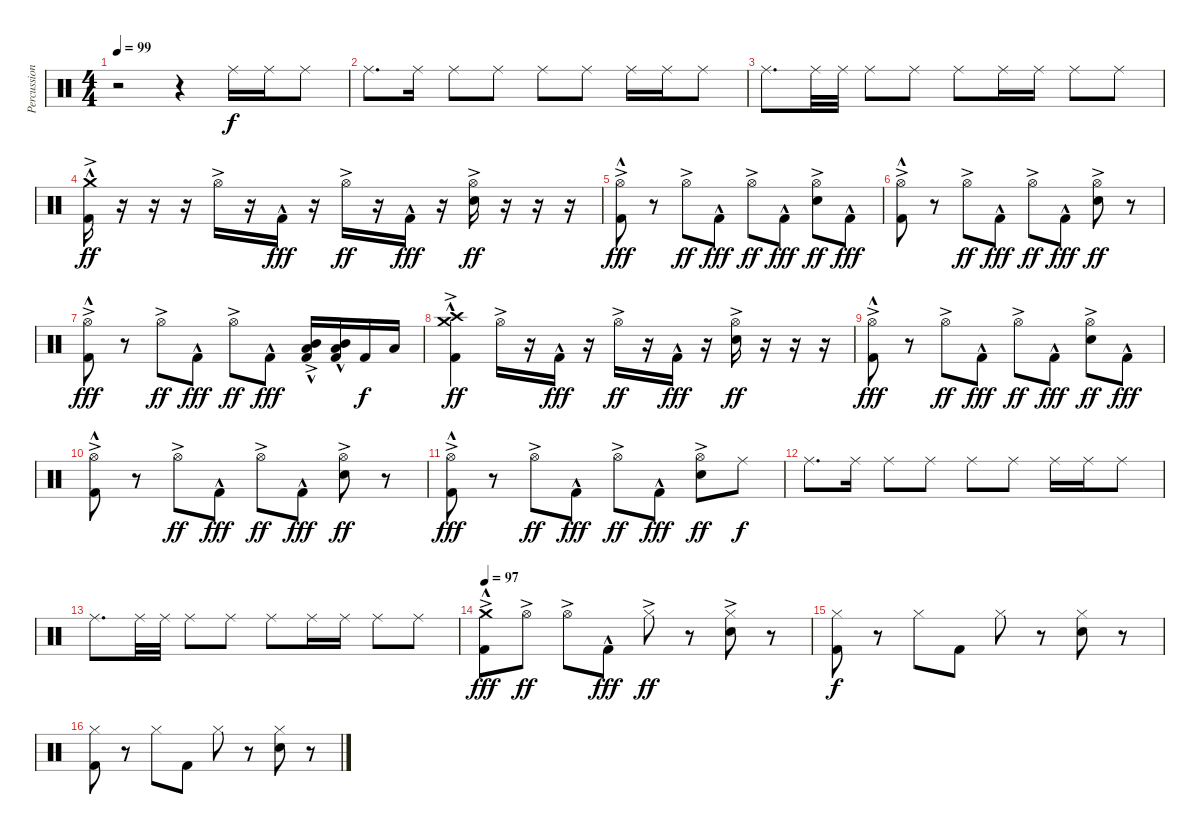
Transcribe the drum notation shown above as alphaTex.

\track ("Percussion" "Percussion") {instrument percussion}
\staff {score}
\articulation defaults
\ts (4 4)
\tempo 99
\clef neutral
\ks c
r.2{dy f} r.4 "Ride (middle)".16 "Ride (middle)".16 "Ride (middle)".8 |
"Ride (middle)".8{d} "Ride (middle)".16 "Ride (middle)".8 "Ride (middle)".8 "Ride (middle)".8 "Ride (middle)".8 "Ride (middle)".16 "Ride (middle)".16 "Ride (middle)".8 |
"Ride (middle)".8{d} "Ride (middle)".32 "Ride (middle)".32 "Ride (middle)".8 "Ride (middle)".8 "Ride (middle)".8 "Ride (middle)".16 "Ride (middle)".16 "Ride (middle)".8 "Ride (middle)".8 |
("Crash medium (hit)"{hac} "Kick (hit) 2"{ac}).16{dy ff} r.16 r.16 r.16 "Hi-Hat (open)"{ac}.16 r.16 "Kick (hit) 2"{hac}.16{dy fff} r.16 "Hi-Hat (open)"{ac}.16{dy ff} r.16 "Kick (hit) 2"{hac}.16{dy fff} r.16 ("Hi-Hat (open)"{ac} "Snare (hit) 2"{ac}).16{dy ff} r.16 r.16 r.16 |
("Hi-Hat (open)"{ac} "Kick (hit) 2"{hac}).8{dy fff} r.8 "Hi-Hat (open)"{ac}.8{dy ff} "Kick (hit) 2"{hac}.8{dy fff} "Hi-Hat (open)"{ac}.8{dy ff} "Kick (hit) 2"{hac}.8{dy fff} ("Hi-Hat (open)"{ac} "Snare (hit) 2"{ac}).8{dy ff} "Kick (hit) 2"{hac}.8{dy fff} |
("Hi-Hat (open)"{ac} "Kick (hit) 2"{hac}).8 r.8 "Hi-Hat (open)"{ac}.8{dy ff} "Kick (hit) 2"{hac}.8{dy fff} "Hi-Hat (open)"{ac}.8{dy ff} "Kick (hit) 2"{hac}.8{dy fff} ("Hi-Hat (open)"{ac} "Snare (hit) 2"{ac}).8{dy ff} r.8 |
("Hi-Hat (open)"{ac} "Kick (hit) 2"{hac}).8{dy fff} r.8 "Hi-Hat (open)"{ac}.8{dy ff} "Kick (hit) 2"{hac}.8{dy fff} "Hi-Hat (open)"{ac}.8{dy ff} "Kick (hit) 2"{hac}.8{dy fff} ("Low Tom (hit)"{ac} "Mid Tom (hit)"{hac} "Kick (hit) 2").16 ("Low Tom (hit)"{hac} "Mid Tom (hit)"{hac} "Kick (hit) 2").16 "Kick (hit) 2".16{dy f} "Low Tom (hit)".16 |
("Crash medium (hit)"{hac} "Crash high (hit)"{hac} "Kick (hit) 2"{ac}).4{dy ff} "Hi-Hat (open)"{ac}.16 r.16 "Kick (hit) 2"{hac}.16{dy fff} r.16 "Hi-Hat (open)"{ac}.16{dy ff} r.16 "Kick (hit) 2"{hac}.16{dy fff} r.16 ("Hi-Hat (open)"{ac} "Snare (hit) 2"{ac}).16{dy ff} r.16 r.16 r.16 |
("Hi-Hat (open)"{ac} "Kick (hit) 2"{hac}).8{dy fff} r.8 "Hi-Hat (open)"{ac}.8{dy ff} "Kick (hit) 2"{hac}.8{dy fff} "Hi-Hat (open)"{ac}.8{dy ff} "Kick (hit) 2"{hac}.8{dy fff} ("Hi-Hat (open)"{ac} "Snare (hit) 2"{ac}).8{dy ff} "Kick (hit) 2"{hac}.8{dy fff} |
("Hi-Hat (open)"{ac} "Kick (hit) 2"{hac}).8 r.8 "Hi-Hat (open)"{ac}.8{dy ff} "Kick (hit) 2"{hac}.8{dy fff} "Hi-Hat (open)"{ac}.8{dy ff} "Kick (hit) 2"{hac}.8{dy fff} ("Hi-Hat (open)"{ac} "Snare (hit) 2"{ac}).8{dy ff} r.8 |
("Hi-Hat (open)"{ac} "Kick (hit) 2"{hac}).8{dy fff} r.8 "Hi-Hat (open)"{ac}.8{dy ff} "Kick (hit) 2"{hac}.8{dy fff} "Hi-Hat (open)"{ac}.8{dy ff} "Kick (hit) 2"{hac}.8{dy fff} ("Hi-Hat (open)"{ac} "Snare (hit) 2"{ac}).8{dy ff} "Ride (middle)".8{dy f} |
"Ride (middle)".8{d} "Ride (middle)".16 "Ride (middle)".8 "Ride (middle)".8 "Ride (middle)".8 "Ride (middle)".8 "Ride (middle)".16 "Ride (middle)".16 "Ride (middle)".8 |
"Ride (middle)".8{d} "Ride (middle)".32 "Ride (middle)".32 "Ride (middle)".8 "Ride (middle)".8 "Ride (middle)".8 "Ride (middle)".16 "Ride (middle)".16 "Ride (middle)".8 "Ride (middle)".8 |
\tempo 97
("Crash medium (hit)"{ac} "Kick (hit) 2"{hac}).8{dy fff} "Hi-Hat (open)"{ac}.8{dy ff} "Hi-Hat (open)"{ac}.8 "Kick (hit) 2"{hac}.8{dy fff} "Hi-Hat (closed)"{ac}.8{dy ff} r.8 ("Hi-Hat (closed)"{ac} "Snare (hit) 2"{ac}).8 r.8 |
("Hi-Hat (closed)" "Kick (hit) 2").8{dy f} r.8 "Hi-Hat (closed)".8 "Kick (hit) 2".8 "Hi-Hat (closed)".8 r.8 ("Hi-Hat (closed)" "Snare (hit) 2").8 r.8 |
("Hi-Hat (closed)" "Kick (hit) 2").8 r.8 "Hi-Hat (closed)".8 "Kick (hit) 2".8 "Hi-Hat (closed)".8 r.8 ("Hi-Hat (closed)" "Snare (hit) 2").8 r.8
